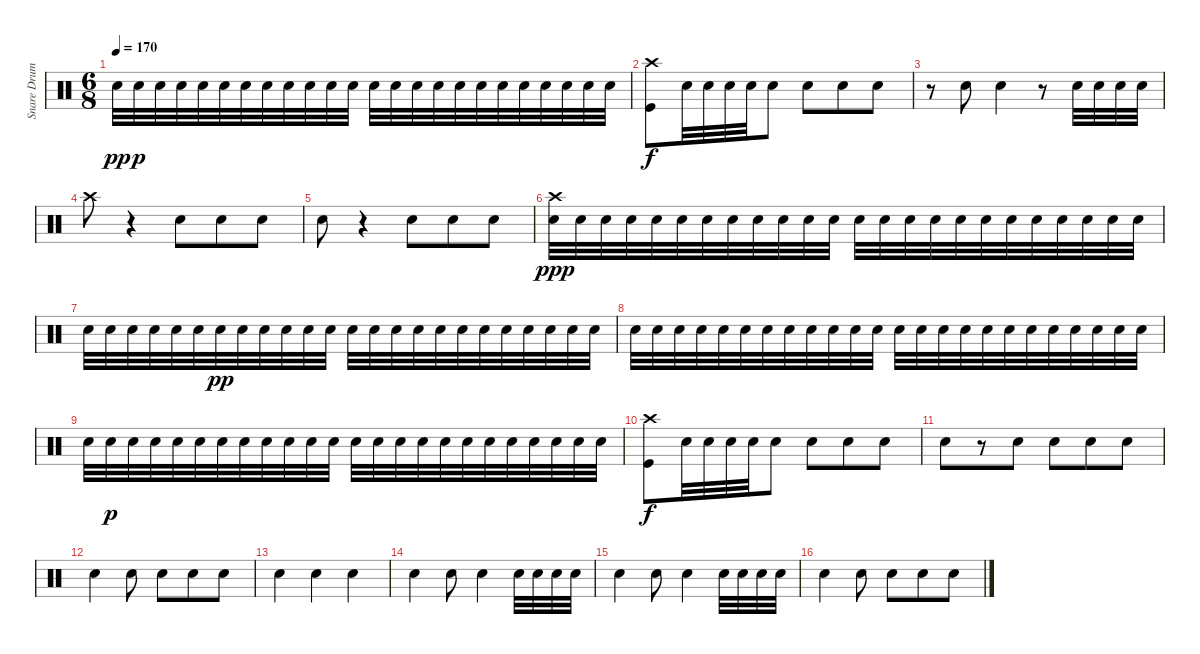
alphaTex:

\track ("Snare Drum" "Snare Drum") {instrument percussion}
\staff {score}
\articulation defaults
\ts (6 8)
\tempo 170
\clef neutral
\ks c "Snare (hit) 2".32{dy pp} "Snare (hit) 2".32{dy p} "Snare (hit) 2".32 "Snare (hit) 2".32 "Snare (hit) 2".32 "Snare (hit) 2".32 "Snare (hit) 2".32 "Snare (hit) 2".32 "Snare (hit) 2".32 "Snare (hit) 2".32 "Snare (hit) 2".32 "Snare (hit) 2".32 "Snare (hit) 2".32 "Snare (hit) 2".32 "Snare (hit) 2".32 "Snare (hit) 2".32 "Snare (hit) 2".32 "Snare (hit) 2".32 "Snare (hit) 2".32 "Snare (hit) 2".32 "Snare (hit) 2".32 "Snare (hit) 2".32 "Snare (hit) 2".32 "Snare (hit) 2".32
|
("Crash high (hit)" "Kick (hit)").8{dy f} "Snare (hit) 2".32 "Snare (hit) 2".32 "Snare (hit) 2".32 "Snare (hit) 2".32 "Snare (hit) 2".8 "Snare (hit) 2".8 "Snare (hit) 2".8 "Snare (hit) 2".8 |
r.8 "Snare (hit) 2".8 "Snare (hit) 2".4 r.8 "Snare (hit) 2".32 "Snare (hit) 2".32 "Snare (hit) 2".32 "Snare (hit) 2".32 |
"Crash high (hit)".8 r.4 "Snare (hit) 2".8 "Snare (hit) 2".8 "Snare (hit) 2".8 |
"Snare (hit) 2".8 r.4 "Snare (hit) 2".8 "Snare (hit) 2".8 "Snare (hit) 2".8 |
("Crash high (hit)" "Snare (hit) 2").32{dy ppp} "Snare (hit) 2".32 "Snare (hit) 2".32 "Snare (hit) 2".32 "Snare (hit) 2".32 "Snare (hit) 2".32 "Snare (hit) 2".32 "Snare (hit) 2".32 "Snare (hit) 2".32 "Snare (hit) 2".32 "Snare (hit) 2".32 "Snare (hit) 2".32 "Snare (hit) 2".32 "Snare (hit) 2".32 "Snare (hit) 2".32 "Snare (hit) 2".32 "Snare (hit) 2".32 "Snare (hit) 2".32 "Snare (hit) 2".32 "Snare (hit) 2".32 "Snare (hit) 2".32 "Snare (hit) 2".32 "Snare (hit) 2".32 "Snare (hit) 2".32 |
"Snare (hit) 2".32 "Snare (hit) 2".32 "Snare (hit) 2".32 "Snare (hit) 2".32 "Snare (hit) 2".32 "Snare (hit) 2".32 "Snare (hit) 2".32{dy pp} "Snare (hit) 2".32 "Snare (hit) 2".32 "Snare (hit) 2".32 "Snare (hit) 2".32 "Snare (hit) 2".32 "Snare (hit) 2".32 "Snare (hit) 2".32 "Snare (hit) 2".32 "Snare (hit) 2".32 "Snare (hit) 2".32 "Snare (hit) 2".32 "Snare (hit) 2".32 "Snare (hit) 2".32 "Snare (hit) 2".32 "Snare (hit) 2".32 "Snare (hit) 2".32 "Snare (hit) 2".32 |
"Snare (hit) 2".32 "Snare (hit) 2".32 "Snare (hit) 2".32 "Snare (hit) 2".32 "Snare (hit) 2".32 "Snare (hit) 2".32 "Snare (hit) 2".32 "Snare (hit) 2".32 "Snare (hit) 2".32 "Snare (hit) 2".32 "Snare (hit) 2".32 "Snare (hit) 2".32 "Snare (hit) 2".32 "Snare (hit) 2".32 "Snare (hit) 2".32 "Snare (hit) 2".32 "Snare (hit) 2".32 "Snare (hit) 2".32 "Snare (hit) 2".32 "Snare (hit) 2".32 "Snare (hit) 2".32 "Snare (hit) 2".32 "Snare (hit) 2".32 "Snare (hit) 2".32 |
"Snare (hit) 2".32 "Snare (hit) 2".32{dy p} "Snare (hit) 2".32 "Snare (hit) 2".32 "Snare (hit) 2".32 "Snare (hit) 2".32 "Snare (hit) 2".32 "Snare (hit) 2".32 "Snare (hit) 2".32 "Snare (hit) 2".32 "Snare (hit) 2".32 "Snare (hit) 2".32 "Snare (hit) 2".32 "Snare (hit) 2".32 "Snare (hit) 2".32 "Snare (hit) 2".32 "Snare (hit) 2".32 "Snare (hit) 2".32 "Snare (hit) 2".32 "Snare (hit) 2".32 "Snare (hit) 2".32 "Snare (hit) 2".32 "Snare (hit) 2".32 "Snare (hit) 2".32 |
("Crash high (hit)" "Kick (hit)").8{dy f} "Snare (hit) 2".32 "Snare (hit) 2".32 "Snare (hit) 2".32 "Snare (hit) 2".32 "Snare (hit) 2".8 "Snare (hit) 2".8 "Snare (hit) 2".8 "Snare (hit) 2".8 |
"Snare (hit) 2".8 r.8 "Snare (hit) 2".8 "Snare (hit) 2".8 "Snare (hit) 2".8 "Snare (hit) 2".8 |
"Snare (hit) 2".4 "Snare (hit) 2".8 "Snare (hit) 2".8 "Snare (hit) 2".8 "Snare (hit) 2".8 |
"Snare (hit) 2".4 "Snare (hit) 2".4 "Snare (hit) 2".4 |
"Snare (hit) 2".4 "Snare (hit) 2".8 "Snare (hit) 2".4 "Snare (hit) 2".32 "Snare (hit) 2".32 "Snare (hit) 2".32 "Snare (hit) 2".32 |
"Snare (hit) 2".4 "Snare (hit) 2".8 "Snare (hit) 2".4 "Snare (hit) 2".32 "Snare (hit) 2".32 "Snare (hit) 2".32 "Snare (hit) 2".32 |
"Snare (hit) 2".4 "Snare (hit) 2".8 "Snare (hit) 2".8 "Snare (hit) 2".8 "Snare (hit) 2".8
